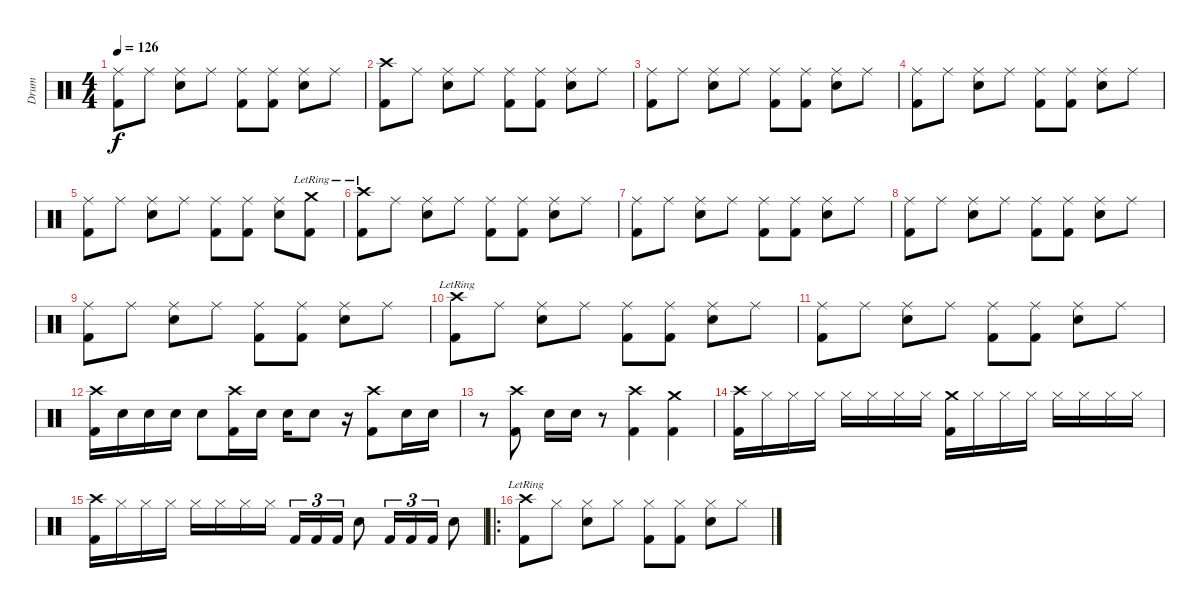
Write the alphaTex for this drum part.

\track ("Drum" "Drum") {instrument percussion}
\staff {score}
\articulation defaults
\ts (4 4)
\tempo 126
\clef neutral
\ks c
("Ride (middle)" "Kick (hit) 2").8{dy f} "Ride (middle)".8 ("Ride (middle)" "Snare (hit) 2").8 "Ride (middle)".8 ("Ride (middle)" "Kick (hit) 2").8 ("Ride (middle)" "Kick (hit) 2").8 ("Ride (middle)" "Snare (hit) 2").8 "Ride (middle)".8 |
("Crash high (hit)" "Kick (hit) 2").8 "Ride (middle)".8 ("Ride (middle)" "Snare (hit) 2").8 "Ride (middle)".8 ("Ride (middle)" "Kick (hit) 2").8 ("Ride (middle)" "Kick (hit) 2").8 ("Ride (middle)" "Snare (hit) 2").8 "Ride (middle)".8 |
("Ride (middle)" "Kick (hit) 2").8 "Ride (middle)".8 ("Ride (middle)" "Snare (hit) 2").8 "Ride (middle)".8 ("Ride (middle)" "Kick (hit) 2").8 ("Ride (middle)" "Kick (hit) 2").8 ("Ride (middle)" "Snare (hit) 2").8 "Ride (middle)".8 |
("Ride (middle)" "Kick (hit) 2").8 "Ride (middle)".8 ("Ride (middle)" "Snare (hit) 2").8 "Ride (middle)".8 ("Ride (middle)" "Kick (hit) 2").8 ("Ride (middle)" "Kick (hit) 2").8 ("Ride (middle)" "Snare (hit) 2").8 "Ride (middle)".8 |
("Ride (middle)" "Kick (hit) 2").8 "Ride (middle)".8 ("Ride (middle)" "Snare (hit) 2").8 "Ride (middle)".8 ("Ride (middle)" "Kick (hit) 2").8 ("Ride (middle)" "Kick (hit) 2").8 ("Ride (middle)" "Snare (hit) 2").8 ("Crash medium (hit)"{lr} "Kick (hit) 2").8 |
("Crash high (hit)"{lr} "Kick (hit) 2").8 "Ride (middle)".8 ("Ride (middle)" "Snare (hit) 2").8 "Ride (middle)".8 ("Ride (middle)" "Kick (hit) 2").8 ("Ride (middle)" "Kick (hit) 2").8 ("Ride (middle)" "Snare (hit) 2").8 "Ride (middle)".8 |
("Ride (middle)" "Kick (hit) 2").8 "Ride (middle)".8 ("Ride (middle)" "Snare (hit) 2").8 "Ride (middle)".8 ("Ride (middle)" "Kick (hit) 2").8 ("Ride (middle)" "Kick (hit) 2").8 ("Ride (middle)" "Snare (hit) 2").8 "Ride (middle)".8 |
("Ride (middle)" "Kick (hit) 2").8 "Ride (middle)".8 ("Ride (middle)" "Snare (hit) 2").8 "Ride (middle)".8 ("Ride (middle)" "Kick (hit) 2").8 ("Ride (middle)" "Kick (hit) 2").8 ("Ride (middle)" "Snare (hit) 2").8 "Ride (middle)".8 |
("Ride (middle)" "Kick (hit) 2").8 "Ride (middle)".8 ("Ride (middle)" "Snare (hit) 2").8 "Ride (middle)".8 ("Ride (middle)" "Kick (hit) 2").8 ("Ride (middle)" "Kick (hit) 2").8 ("Ride (middle)" "Snare (hit) 2").8 "Ride (middle)".8 |
("Crash high (hit)"{lr} "Kick (hit) 2").8 "Ride (middle)".8 ("Ride (middle)" "Snare (hit) 2").8 "Ride (middle)".8 ("Ride (middle)" "Kick (hit) 2").8 ("Ride (middle)" "Kick (hit) 2").8 ("Ride (middle)" "Snare (hit) 2").8 "Ride (middle)".8 |
("Ride (middle)" "Kick (hit) 2").8 "Ride (middle)".8 ("Ride (middle)" "Snare (hit) 2").8 "Ride (middle)".8 ("Ride (middle)" "Kick (hit) 2").8 ("Ride (middle)" "Kick (hit) 2").8 ("Ride (middle)" "Snare (hit) 2").8 "Ride (middle)".8 |
("Crash high (hit)" "Kick (hit) 2").16 "Snare (hit) 2".16 "Snare (hit) 2".16 "Snare (hit) 2".16 "Snare (hit) 2".8 ("Crash high (hit)" "Kick (hit) 2").16 "Snare (hit) 2".16 "Snare (hit) 2".16 "Snare (hit) 2".8 r.16 ("Crash high (hit)" "Kick (hit) 2").8 "Snare (hit) 2".16 "Snare (hit) 2".16 |
r.8 ("Crash high (hit)" "Kick (hit) 2").8 "Snare (hit) 2".16 "Snare (hit) 2".16 r.8 ("Crash high (hit)" "Kick (hit) 2").4 ("Crash medium (hit)" "Kick (hit) 2").4 |
("Crash high (hit)" "Kick (hit) 2").16 "Hi-Hat (closed)".16 "Hi-Hat (closed)".16 "Hi-Hat (closed)".16 "Hi-Hat (closed)".16 "Hi-Hat (closed)".16 "Hi-Hat (closed)".16 "Hi-Hat (closed)".16 ("Crash medium (hit)" "Kick (hit) 2").16 "Hi-Hat (closed)".16 "Hi-Hat (closed)".16 "Hi-Hat (closed)".16 "Hi-Hat (closed)".16 "Hi-Hat (closed)".16 "Hi-Hat (closed)".16 "Hi-Hat (closed)".16 |
("Crash high (hit)" "Kick (hit) 2").16 "Hi-Hat (closed)".16 "Hi-Hat (closed)".16 "Hi-Hat (closed)".16 "Hi-Hat (closed)".16 "Hi-Hat (closed)".16 "Hi-Hat (closed)".16 "Hi-Hat (closed)".16 "Kick (hit) 2".16{tu (3 2)} "Kick (hit) 2".16{tu (3 2)} "Kick (hit) 2".16{tu (3 2)} "Snare (hit) 2".8 "Kick (hit) 2".16{tu (3 2)} "Kick (hit) 2".16{tu (3 2)} "Kick (hit) 2".16{tu (3 2)} "Snare (hit) 2".8 |
\ro
("Crash high (hit)"{lr} "Kick (hit) 2").8 "Hi-Hat (closed)".8 ("Hi-Hat (closed)" "Snare (hit) 2").8 "Hi-Hat (closed)".8 ("Hi-Hat (closed)" "Kick (hit) 2").8 ("Hi-Hat (closed)" "Kick (hit) 2").8 ("Hi-Hat (closed)" "Snare (hit) 2").8 "Hi-Hat (closed)".8
